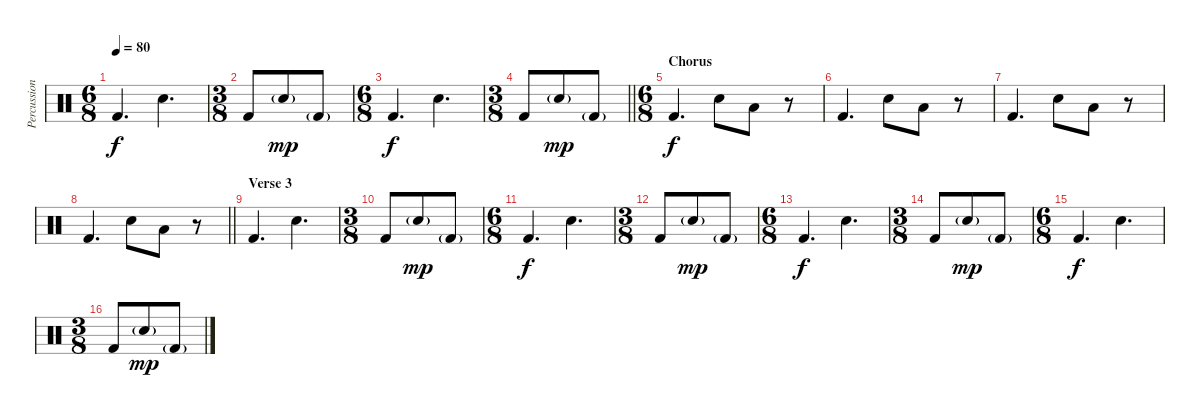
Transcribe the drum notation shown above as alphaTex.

\track ("Percussion" "Percussion") {instrument percussion}
\staff {score}
\articulation defaults
\ts (6 8)
\tempo 80
\clef neutral
\ks c "Kick (hit) 2".4{d dy f} "Snare (hit) 2".4{d}
|
\ts (3 8)
"Kick (hit) 2".8 "Snare (hit) 2"{g}.8{dy mp} "Kick (hit) 2"{g}.8 |
\ts (6 8)
"Kick (hit) 2".4{d dy f} "Snare (hit) 2".4{d} |
\ts (3 8)
\barLineRight lightlight "Kick (hit) 2".8 "Snare (hit) 2"{g}.8{dy mp} "Kick (hit) 2"{g}.8
|
\ts (6 8)
\section ("" "Chorus")
"Kick (hit) 2".4{d dy f} "Snare (hit) 2".8 "Low Floor Tom (hit)".8 r.8 |
"Kick (hit) 2".4{d} "Snare (hit) 2".8 "Low Floor Tom (hit)".8 r.8 |
"Kick (hit) 2".4{d} "Snare (hit) 2".8 "Low Floor Tom (hit)".8 r.8 |
\barLineRight lightlight "Kick (hit) 2".4{d} "Snare (hit) 2".8 "Low Floor Tom (hit)".8
r.8 |
\section ("" "Verse 3")
"Kick (hit) 2".4{d} "Snare (hit) 2".4{d} |
\ts (3 8)
"Kick (hit) 2".8 "Snare (hit) 2"{g}.8{dy mp} "Kick (hit) 2"{g}.8 |
\ts (6 8)
"Kick (hit) 2".4{d dy f} "Snare (hit) 2".4{d} |
\ts (3 8)
"Kick (hit) 2".8 "Snare (hit) 2"{g}.8{dy mp} "Kick (hit) 2"{g}.8 |
\ts (6 8)
"Kick (hit) 2".4{d dy f} "Snare (hit) 2".4{d} |
\ts (3 8)
"Kick (hit) 2".8 "Snare (hit) 2"{g}.8{dy mp} "Kick (hit) 2"{g}.8 |
\ts (6 8)
"Kick (hit) 2".4{d dy f} "Snare (hit) 2".4{d} |
\ts (3 8)
"Kick (hit) 2".8 "Snare (hit) 2"{g}.8{dy mp} "Kick (hit) 2"{g}.8
